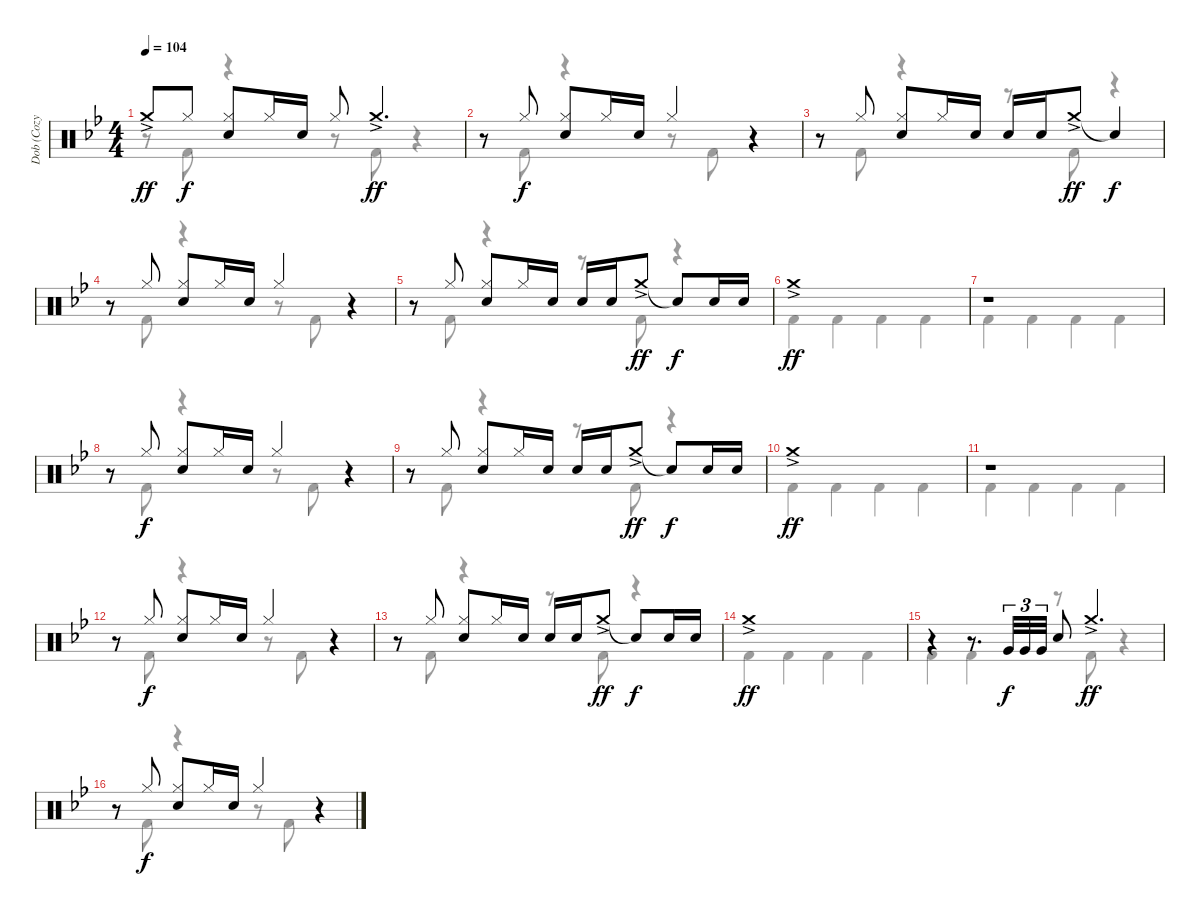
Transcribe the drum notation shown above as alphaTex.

\track ("Dob (Cozy Powell)" "Dob (Cozy ") {instrument percussion}
\staff {score}
\articulation defaults
\voice
\ts (4 4)
\tempo 104
\clef neutral
\ks bb "Crash medium (hit)"{ac}.8{dy ff} "Hi-Hat (closed)".8{dy f}
("Hi-Hat (closed)" "Electric Snare (hit)").8 "Hi-Hat (closed)".16 "Electric Snare (hit)".16 "Hi-Hat (closed)".8 "Crash medium (hit)"{ac}.4{d dy ff} |
r.8 "Hi-Hat (closed)".8{dy f} ("Hi-Hat (closed)" "Electric Snare (hit)").8 "Hi-Hat (closed)".16 "Electric Snare (hit)".16 "Hi-Hat (closed)".4 r.4 |
r.8 "Hi-Hat (closed)".8 ("Hi-Hat (closed)" "Electric Snare (hit)").8 "Hi-Hat (closed)".16 "Electric Snare (hit)".16 "Electric Snare (hit)".16 "Electric Snare (hit)".16 "Crash medium (hit)"{ac}.8{dy ff} "Snare (hit)"{t}.4{dy f} |
r.8 "Hi-Hat (closed)".8 ("Hi-Hat (closed)" "Electric Snare (hit)").8 "Hi-Hat (closed)".16 "Electric Snare (hit)".16 "Hi-Hat (closed)".4 r.4 |
r.8 "Hi-Hat (closed)".8 ("Hi-Hat (closed)" "Electric Snare (hit)").8 "Hi-Hat (closed)".16 "Electric Snare (hit)".16 "Electric Snare (hit)".16 "Electric Snare (hit)".16 "Crash medium (hit)"{ac}.8{dy ff} "Snare (hit)"{t}.8{dy f} "Electric Snare (hit)".16 "Electric Snare (hit)".16 |
"Crash medium (hit)"{ac}.1{dy ff} |
r.1 |
r.8 "Hi-Hat (closed)".8{dy f} ("Hi-Hat (closed)" "Electric Snare (hit)").8 "Hi-Hat (closed)".16 "Electric Snare (hit)".16 "Hi-Hat (closed)".4 r.4 |
r.8 "Hi-Hat (closed)".8 ("Hi-Hat (closed)" "Electric Snare (hit)").8 "Hi-Hat (closed)".16 "Electric Snare (hit)".16 "Electric Snare (hit)".16 "Electric Snare (hit)".16 "Crash medium (hit)"{ac}.8{dy ff} "Snare (hit)"{t}.8{dy f} "Electric Snare (hit)".16 "Electric Snare (hit)".16 |
"Crash medium (hit)"{ac}.1{dy ff} |
r.1 |
r.8 "Hi-Hat (closed)".8{dy f} ("Hi-Hat (closed)" "Electric Snare (hit)").8 "Hi-Hat (closed)".16 "Electric Snare (hit)".16 "Hi-Hat (closed)".4 r.4 |
r.8 "Hi-Hat (closed)".8 ("Hi-Hat (closed)" "Electric Snare (hit)").8 "Hi-Hat (closed)".16 "Electric Snare (hit)".16 "Electric Snare (hit)".16 "Electric Snare (hit)".16 "Crash medium (hit)"{ac}.8{dy ff} "Snare (hit)"{t}.8{dy f} "Electric Snare (hit)".16 "Electric Snare (hit)".16 |
"Crash medium (hit)"{ac}.1{dy ff} |
r.4 r.8{d} "Very Low Tom (hit)".32{tu (3 2) dy f} "Very Low Tom (hit)".32{tu (3 2)} "Very Low Tom (hit)".32{tu (3 2)} "Electric Snare (hit)".8 "Crash medium (hit)"{ac}.4{d dy ff} |
r.8 "Hi-Hat (closed)".8{dy f} ("Hi-Hat (closed)" "Electric Snare (hit)").8 "Hi-Hat (closed)".16 "Electric Snare (hit)".16 "Hi-Hat (closed)".4 r.4
\voice
\clef neutral
\ottava regular
\simile none
\ks bb
r.8{dy f} "Kick (hit) 2".8 r.4 r.8 "Kick (hit) 2".8 r.4 |
r.8 "Kick (hit) 2".8 r.4 r.8 "Kick (hit) 2".8 r.4 |
r.8 "Kick (hit) 2".8 r.4 r.8 "Kick (hit) 2".8 r.4 |
r.8 "Kick (hit) 2".8 r.4 r.8 "Kick (hit) 2".8 r.4 |
r.8 "Kick (hit) 2".8 r.4 r.8 "Kick (hit) 2".8 r.4 |
"Kick (hit) 2".4 "Kick (hit) 2".4 "Kick (hit) 2".4 "Kick (hit) 2".4 |
"Kick (hit) 2".4 "Kick (hit) 2".4 "Kick (hit) 2".4 "Kick (hit) 2".4 |
r.8 "Kick (hit) 2".8 r.4 r.8 "Kick (hit) 2".8 r.4 |
r.8 "Kick (hit) 2".8 r.4 r.8 "Kick (hit) 2".8 r.4 |
"Kick (hit) 2".4 "Kick (hit) 2".4 "Kick (hit) 2".4 "Kick (hit) 2".4 |
"Kick (hit) 2".4 "Kick (hit) 2".4 "Kick (hit) 2".4 "Kick (hit) 2".4 |
r.8 "Kick (hit) 2".8 r.4 r.8 "Kick (hit) 2".8 r.4 |
r.8 "Kick (hit) 2".8 r.4 r.8 "Kick (hit) 2".8 r.4 |
"Kick (hit) 2".4 "Kick (hit) 2".4 "Kick (hit) 2".4 "Kick (hit) 2".4 |
"Kick (hit) 2".4 "Kick (hit) 2".4 r.8 "Kick (hit) 2".8 r.4 |
r.8 "Kick (hit) 2".8 r.4 r.8 "Kick (hit) 2".8 r.4
